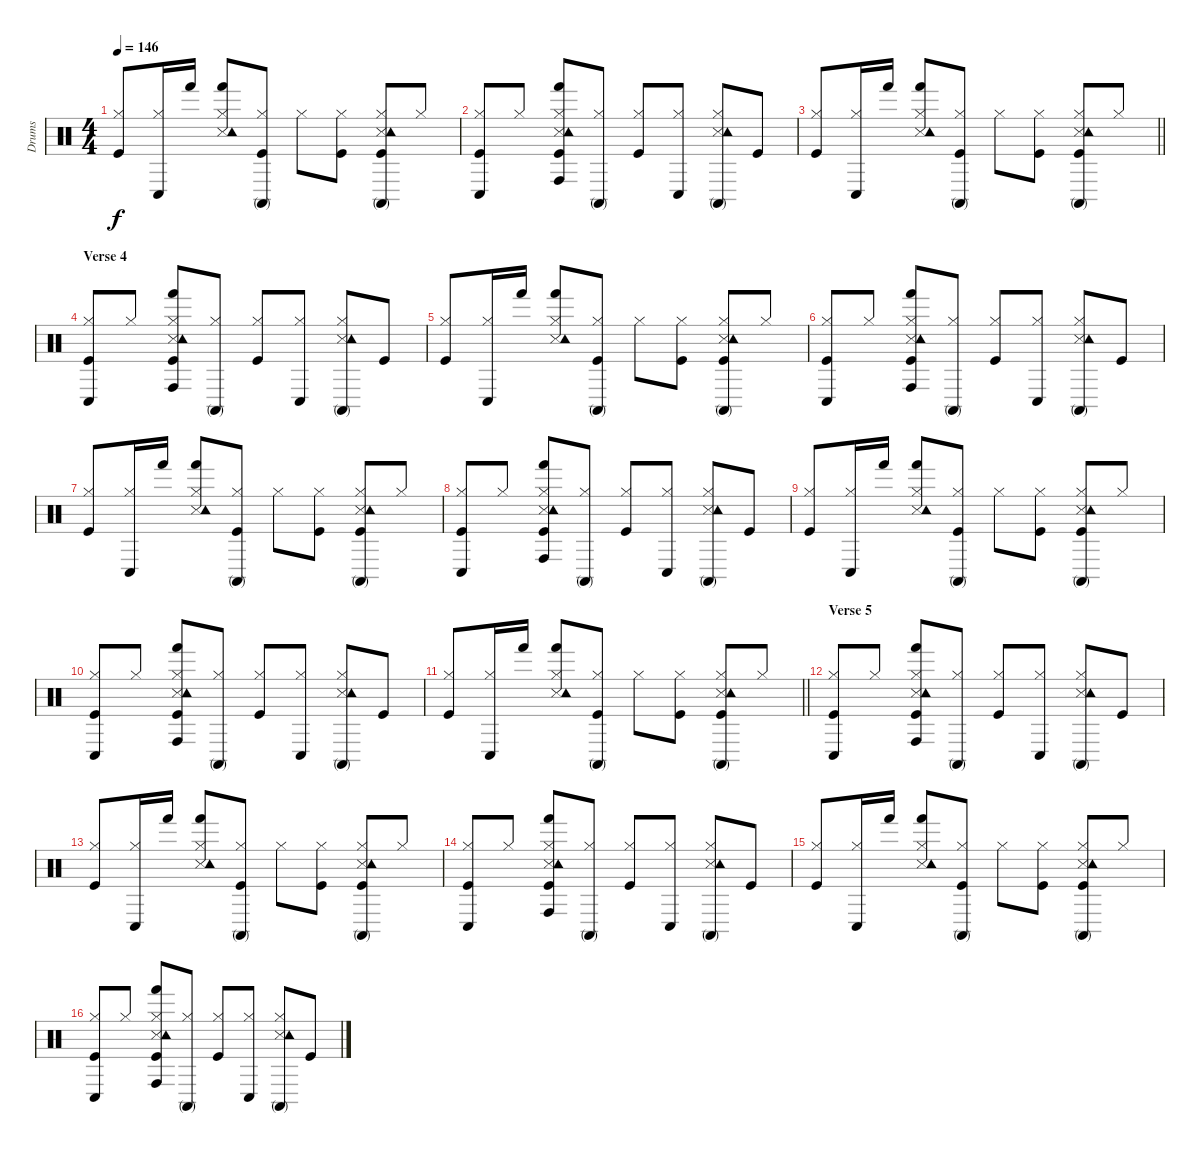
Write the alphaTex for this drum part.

\track ("Drums" "Drums") {instrument percussion}
\staff {score}
\articulation defaults
\ts (4 4)
\tempo 146
\clef neutral
\ks c
("Kick (hit)" "Hi-Hat (closed)").8{dy f} ("Hi-Hat (closed)" "Conga low (hit)").16 "Hand (hit)".16 ("Snare (side stick) 3" "Hi-Hat (closed)" "Tambourine (hit)" "Hand (hit)").8 ("Kick (hit)" "Hi-Hat (closed)" "Conga high (mute)").8 "Hi-Hat (closed)".8 ("Kick (hit)" "Hi-Hat (closed)").8 ("Kick (hit)" "Snare (side stick) 3" "Hi-Hat (closed)" "Tambourine (hit)" "Conga high (mute)").8 "Hi-Hat (closed)".8 |
("Kick (hit)" "Hi-Hat (closed)" "Conga low (hit)").8 "Hi-Hat (closed)".8 ("Kick (hit)" "Snare (side stick) 3" "Hi-Hat (closed)" "Tambourine (hit)" "Hand (hit)" "Conga high (hit)").8 ("Hi-Hat (closed)" "Conga high (mute)").8 ("Kick (hit)" "Hi-Hat (closed)").8 ("Hi-Hat (closed)" "Conga low (hit)").8 ("Snare (side stick) 3" "Hi-Hat (closed)" "Tambourine (hit)" "Conga high (mute)").8 "Kick (hit)".8 |
\barLineRight lightlight
("Kick (hit)" "Hi-Hat (closed)").8 ("Hi-Hat (closed)" "Conga low (hit)").16 "Hand (hit)".16 ("Snare (side stick) 3" "Hi-Hat (closed)" "Tambourine (hit)" "Hand (hit)").8 ("Kick (hit)" "Hi-Hat (closed)" "Conga high (mute)").8 "Hi-Hat (closed)".8 ("Kick (hit)" "Hi-Hat (closed)").8 ("Kick (hit)" "Snare (side stick) 3" "Hi-Hat (closed)" "Tambourine (hit)" "Conga high (mute)").8 "Hi-Hat (closed)".8 |
\section ("" "Verse 4")
("Kick (hit)" "Hi-Hat (closed)" "Conga low (hit)").8 "Hi-Hat (closed)".8 ("Kick (hit)" "Snare (side stick) 3" "Hi-Hat (closed)" "Tambourine (hit)" "Hand (hit)" "Conga high (hit)").8 ("Hi-Hat (closed)" "Conga high (mute)").8 ("Kick (hit)" "Hi-Hat (closed)").8 ("Hi-Hat (closed)" "Conga low (hit)").8 ("Snare (side stick) 3" "Hi-Hat (closed)" "Tambourine (hit)" "Conga high (mute)").8 "Kick (hit)".8 |
("Kick (hit)" "Hi-Hat (closed)").8 ("Hi-Hat (closed)" "Conga low (hit)").16 "Hand (hit)".16 ("Snare (side stick) 3" "Hi-Hat (closed)" "Tambourine (hit)" "Hand (hit)").8 ("Kick (hit)" "Hi-Hat (closed)" "Conga high (mute)").8 "Hi-Hat (closed)".8 ("Kick (hit)" "Hi-Hat (closed)").8 ("Kick (hit)" "Snare (side stick) 3" "Hi-Hat (closed)" "Tambourine (hit)" "Conga high (mute)").8 "Hi-Hat (closed)".8 |
("Kick (hit)" "Hi-Hat (closed)" "Conga low (hit)").8 "Hi-Hat (closed)".8 ("Kick (hit)" "Snare (side stick) 3" "Hi-Hat (closed)" "Tambourine (hit)" "Hand (hit)" "Conga high (hit)").8 ("Hi-Hat (closed)" "Conga high (mute)").8 ("Kick (hit)" "Hi-Hat (closed)").8 ("Hi-Hat (closed)" "Conga low (hit)").8 ("Snare (side stick) 3" "Hi-Hat (closed)" "Tambourine (hit)" "Conga high (mute)").8 "Kick (hit)".8 |
("Kick (hit)" "Hi-Hat (closed)").8 ("Hi-Hat (closed)" "Conga low (hit)").16 "Hand (hit)".16 ("Snare (side stick) 3" "Hi-Hat (closed)" "Tambourine (hit)" "Hand (hit)").8 ("Kick (hit)" "Hi-Hat (closed)" "Conga high (mute)").8 "Hi-Hat (closed)".8 ("Kick (hit)" "Hi-Hat (closed)").8 ("Kick (hit)" "Snare (side stick) 3" "Hi-Hat (closed)" "Tambourine (hit)" "Conga high (mute)").8 "Hi-Hat (closed)".8 |
("Kick (hit)" "Hi-Hat (closed)" "Conga low (hit)").8 "Hi-Hat (closed)".8 ("Kick (hit)" "Snare (side stick) 3" "Hi-Hat (closed)" "Tambourine (hit)" "Hand (hit)" "Conga high (hit)").8 ("Hi-Hat (closed)" "Conga high (mute)").8 ("Kick (hit)" "Hi-Hat (closed)").8 ("Hi-Hat (closed)" "Conga low (hit)").8 ("Snare (side stick) 3" "Hi-Hat (closed)" "Tambourine (hit)" "Conga high (mute)").8 "Kick (hit)".8 |
("Kick (hit)" "Hi-Hat (closed)").8 ("Hi-Hat (closed)" "Conga low (hit)").16 "Hand (hit)".16 ("Snare (side stick) 3" "Hi-Hat (closed)" "Tambourine (hit)" "Hand (hit)").8 ("Kick (hit)" "Hi-Hat (closed)" "Conga high (mute)").8 "Hi-Hat (closed)".8 ("Kick (hit)" "Hi-Hat (closed)").8 ("Kick (hit)" "Snare (side stick) 3" "Hi-Hat (closed)" "Tambourine (hit)" "Conga high (mute)").8 "Hi-Hat (closed)".8 |
("Kick (hit)" "Hi-Hat (closed)" "Conga low (hit)").8 "Hi-Hat (closed)".8 ("Kick (hit)" "Snare (side stick) 3" "Hi-Hat (closed)" "Tambourine (hit)" "Hand (hit)" "Conga high (hit)").8 ("Hi-Hat (closed)" "Conga high (mute)").8 ("Kick (hit)" "Hi-Hat (closed)").8 ("Hi-Hat (closed)" "Conga low (hit)").8 ("Snare (side stick) 3" "Hi-Hat (closed)" "Tambourine (hit)" "Conga high (mute)").8 "Kick (hit)".8 |
\barLineRight lightlight
("Kick (hit)" "Hi-Hat (closed)").8 ("Hi-Hat (closed)" "Conga low (hit)").16 "Hand (hit)".16 ("Snare (side stick) 3" "Hi-Hat (closed)" "Tambourine (hit)" "Hand (hit)").8 ("Kick (hit)" "Hi-Hat (closed)" "Conga high (mute)").8 "Hi-Hat (closed)".8 ("Kick (hit)" "Hi-Hat (closed)").8 ("Kick (hit)" "Snare (side stick) 3" "Hi-Hat (closed)" "Tambourine (hit)" "Conga high (mute)").8 "Hi-Hat (closed)".8 |
\section ("" "Verse 5")
("Kick (hit)" "Hi-Hat (closed)" "Conga low (hit)").8 "Hi-Hat (closed)".8 ("Kick (hit)" "Snare (side stick) 3" "Hi-Hat (closed)" "Tambourine (hit)" "Hand (hit)" "Conga high (hit)").8 ("Hi-Hat (closed)" "Conga high (mute)").8 ("Kick (hit)" "Hi-Hat (closed)").8 ("Hi-Hat (closed)" "Conga low (hit)").8 ("Snare (side stick) 3" "Hi-Hat (closed)" "Tambourine (hit)" "Conga high (mute)").8 "Kick (hit)".8 |
("Kick (hit)" "Hi-Hat (closed)").8 ("Hi-Hat (closed)" "Conga low (hit)").16 "Hand (hit)".16 ("Snare (side stick) 3" "Hi-Hat (closed)" "Tambourine (hit)" "Hand (hit)").8 ("Kick (hit)" "Hi-Hat (closed)" "Conga high (mute)").8 "Hi-Hat (closed)".8 ("Kick (hit)" "Hi-Hat (closed)").8 ("Kick (hit)" "Snare (side stick) 3" "Hi-Hat (closed)" "Tambourine (hit)" "Conga high (mute)").8 "Hi-Hat (closed)".8 |
("Kick (hit)" "Hi-Hat (closed)" "Conga low (hit)").8 "Hi-Hat (closed)".8 ("Kick (hit)" "Snare (side stick) 3" "Hi-Hat (closed)" "Tambourine (hit)" "Hand (hit)" "Conga high (hit)").8 ("Hi-Hat (closed)" "Conga high (mute)").8 ("Kick (hit)" "Hi-Hat (closed)").8 ("Hi-Hat (closed)" "Conga low (hit)").8 ("Snare (side stick) 3" "Hi-Hat (closed)" "Tambourine (hit)" "Conga high (mute)").8 "Kick (hit)".8 |
("Kick (hit)" "Hi-Hat (closed)").8 ("Hi-Hat (closed)" "Conga low (hit)").16 "Hand (hit)".16 ("Snare (side stick) 3" "Hi-Hat (closed)" "Tambourine (hit)" "Hand (hit)").8 ("Kick (hit)" "Hi-Hat (closed)" "Conga high (mute)").8 "Hi-Hat (closed)".8 ("Kick (hit)" "Hi-Hat (closed)").8 ("Kick (hit)" "Snare (side stick) 3" "Hi-Hat (closed)" "Tambourine (hit)" "Conga high (mute)").8 "Hi-Hat (closed)".8 |
("Kick (hit)" "Hi-Hat (closed)" "Conga low (hit)").8 "Hi-Hat (closed)".8 ("Kick (hit)" "Snare (side stick) 3" "Hi-Hat (closed)" "Tambourine (hit)" "Hand (hit)" "Conga high (hit)").8 ("Hi-Hat (closed)" "Conga high (mute)").8 ("Kick (hit)" "Hi-Hat (closed)").8 ("Hi-Hat (closed)" "Conga low (hit)").8 ("Snare (side stick) 3" "Hi-Hat (closed)" "Tambourine (hit)" "Conga high (mute)").8 "Kick (hit)".8
